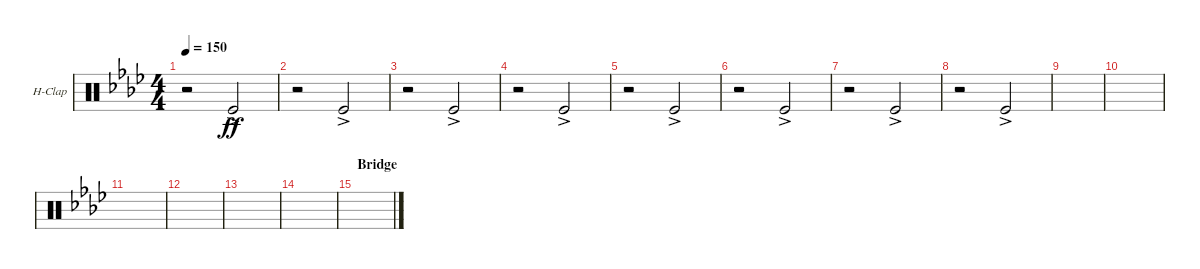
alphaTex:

\bracketExtendMode groupsimilarinstruments
\firstSystemTrackNameOrientation horizontal
\otherSystemsTrackNameOrientation horizontal
\track ("Hand Clap" "H-Clap") {instrument percussion}
\staff {score}
\articulation defaults
\ts (4 4)
\tempo 150
\clef neutral
\scale
0.333333
\ks ab
r.2{dy ff} "Kick (hit)"{ac}.2 |
\scale
0.333333 r.2 "Kick (hit)"{ac}.2 |
\scale
0.333333 r.2 "Kick (hit)"{ac}.2 |
\scale
0.333333 r.2 "Kick (hit)"{ac}.2 |
\scale
0.333333 r.2 "Kick (hit)"{ac}.2 |
\scale
0.333333 r.2 "Kick (hit)"{ac}.2 |
\scale
0.333333 r.2 "Kick (hit)"{ac}.2 |
\scale
0.333333 r.2 "Kick (hit)"{ac}.2 |
\scale
0.333333 |
\scale
0.333333 |
\scale
0.333333 |
\scale
0.333333 |
\scale
0.333333 |
\scale
0.333333 |
\section ("" "Bridge")
\scale
0.333333 |
\scale
0.333333
